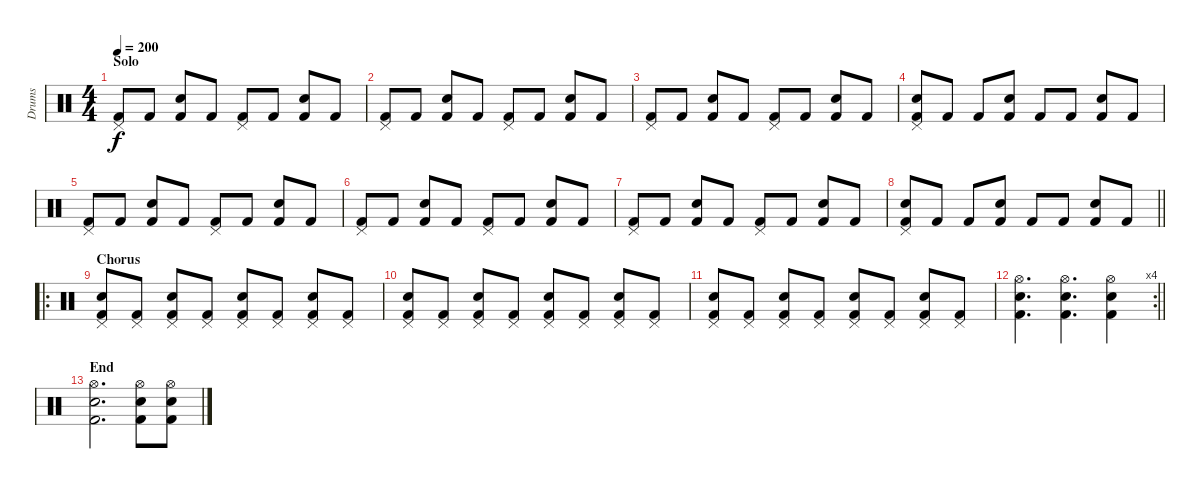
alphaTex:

\track ("Drums" "Drums") {instrument percussion}
\staff {score}
\articulation defaults
\ts (4 4)
\section ("" "Solo")
\tempo 200
\clef neutral
\ks c
("Pedal Hi-Hat (hit)" "Kick (hit) 2").8{dy f} "Kick (hit) 2".8 ("Snare (hit) 2" "Kick (hit) 2").8 "Kick (hit) 2".8 ("Pedal Hi-Hat (hit)" "Kick (hit) 2").8 "Kick (hit) 2".8 ("Snare (hit) 2" "Kick (hit) 2").8 "Kick (hit) 2".8 |
("Pedal Hi-Hat (hit)" "Kick (hit) 2").8 "Kick (hit) 2".8 ("Snare (hit) 2" "Kick (hit) 2").8 "Kick (hit) 2".8 ("Pedal Hi-Hat (hit)" "Kick (hit) 2").8 "Kick (hit) 2".8 ("Snare (hit) 2" "Kick (hit) 2").8 "Kick (hit) 2".8 |
("Pedal Hi-Hat (hit)" "Kick (hit) 2").8 "Kick (hit) 2".8 ("Snare (hit) 2" "Kick (hit) 2").8 "Kick (hit) 2".8 ("Pedal Hi-Hat (hit)" "Kick (hit) 2").8 "Kick (hit) 2".8 ("Snare (hit) 2" "Kick (hit) 2").8 "Kick (hit) 2".8 |
("Pedal Hi-Hat (hit)" "Snare (hit) 2" "Kick (hit) 2").8 "Kick (hit) 2".8 "Kick (hit) 2".8 ("Snare (hit) 2" "Kick (hit) 2").8 "Kick (hit) 2".8 "Kick (hit) 2".8 ("Snare (hit) 2" "Kick (hit) 2").8 "Kick (hit) 2".8 |
("Pedal Hi-Hat (hit)" "Kick (hit) 2").8 "Kick (hit) 2".8 ("Snare (hit) 2" "Kick (hit) 2").8 "Kick (hit) 2".8 ("Pedal Hi-Hat (hit)" "Kick (hit) 2").8 "Kick (hit) 2".8 ("Snare (hit) 2" "Kick (hit) 2").8 "Kick (hit) 2".8 |
("Pedal Hi-Hat (hit)" "Kick (hit) 2").8 "Kick (hit) 2".8 ("Snare (hit) 2" "Kick (hit) 2").8 "Kick (hit) 2".8 ("Pedal Hi-Hat (hit)" "Kick (hit) 2").8 "Kick (hit) 2".8 ("Snare (hit) 2" "Kick (hit) 2").8 "Kick (hit) 2".8 |
("Pedal Hi-Hat (hit)" "Kick (hit) 2").8 "Kick (hit) 2".8 ("Snare (hit) 2" "Kick (hit) 2").8 "Kick (hit) 2".8 ("Pedal Hi-Hat (hit)" "Kick (hit) 2").8 "Kick (hit) 2".8 ("Snare (hit) 2" "Kick (hit) 2").8 "Kick (hit) 2".8 |
\barLineRight lightlight
("Pedal Hi-Hat (hit)" "Snare (hit) 2" "Kick (hit) 2").8 "Kick (hit) 2".8 "Kick (hit) 2".8 ("Snare (hit) 2" "Kick (hit) 2").8 "Kick (hit) 2".8 "Kick (hit) 2".8 ("Snare (hit) 2" "Kick (hit) 2").8 "Kick (hit) 2".8 |
\ro
\section ("" "Chorus")
("Pedal Hi-Hat (hit)" "Snare (hit) 2" "Kick (hit) 2").8 ("Pedal Hi-Hat (hit)" "Kick (hit) 2").8 ("Pedal Hi-Hat (hit)" "Snare (hit) 2" "Kick (hit) 2").8 ("Pedal Hi-Hat (hit)" "Kick (hit) 2").8 ("Pedal Hi-Hat (hit)" "Snare (hit) 2" "Kick (hit) 2").8 ("Pedal Hi-Hat (hit)" "Kick (hit) 2").8 ("Pedal Hi-Hat (hit)" "Snare (hit) 2" "Kick (hit) 2").8 ("Pedal Hi-Hat (hit)" "Kick (hit) 2").8 |
("Pedal Hi-Hat (hit)" "Snare (hit) 2" "Kick (hit) 2").8 ("Pedal Hi-Hat (hit)" "Kick (hit) 2").8 ("Pedal Hi-Hat (hit)" "Snare (hit) 2" "Kick (hit) 2").8 ("Pedal Hi-Hat (hit)" "Kick (hit) 2").8 ("Pedal Hi-Hat (hit)" "Snare (hit) 2" "Kick (hit) 2").8 ("Pedal Hi-Hat (hit)" "Kick (hit) 2").8 ("Pedal Hi-Hat (hit)" "Snare (hit) 2" "Kick (hit) 2").8 ("Pedal Hi-Hat (hit)" "Kick (hit) 2").8 |
("Pedal Hi-Hat (hit)" "Snare (hit) 2" "Kick (hit) 2").8 ("Pedal Hi-Hat (hit)" "Kick (hit) 2").8 ("Pedal Hi-Hat (hit)" "Snare (hit) 2" "Kick (hit) 2").8 ("Pedal Hi-Hat (hit)" "Kick (hit) 2").8 ("Pedal Hi-Hat (hit)" "Snare (hit) 2" "Kick (hit) 2").8 ("Pedal Hi-Hat (hit)" "Kick (hit) 2").8 ("Pedal Hi-Hat (hit)" "Snare (hit) 2" "Kick (hit) 2").8 ("Pedal Hi-Hat (hit)" "Kick (hit) 2").8 |
\rc 4
\barLineRight lightlight
("Hi-Hat (open)" "Snare (hit) 2" "Kick (hit) 2").4{d} ("Hi-Hat (open)" "Snare (hit) 2" "Kick (hit) 2").4{d} ("Hi-Hat (open)" "Snare (hit) 2" "Kick (hit) 2").4 |
\section ("" "End")
("Hi-Hat (open)" "Snare (hit) 2" "Kick (hit) 2").2{d} ("Hi-Hat (open)" "Kick (hit) 2" "Snare (hit) 2").8 ("Hi-Hat (open)" "Snare (hit) 2" "Kick (hit) 2").8
